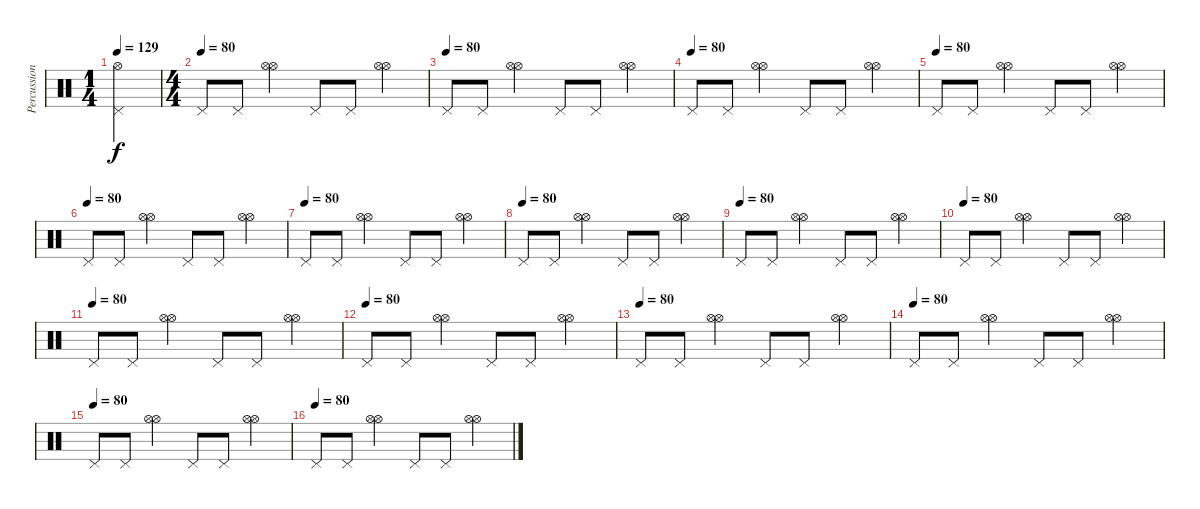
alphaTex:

\track ("Percussions" "Percussion") {instrument percussion}
\staff {score}
\articulation defaults
\ts (1 4)
\tempo 129
\tempo 80
\tempo 129
\clef neutral
\ks c
("Hi-Hat (open)" "Pedal Hi-Hat (hit)").4{dy f} |
\ts (4 4)
\tempo (80)
"Pedal Hi-Hat (hit)".8 "Pedal Hi-Hat (hit)".8 ("Hi-Hat (open)" "Hi-Hat (open)").4 "Pedal Hi-Hat (hit)".8 "Pedal Hi-Hat (hit)".8 ("Hi-Hat (open)" "Hi-Hat (open)").4 |
\tempo (80)
"Pedal Hi-Hat (hit)".8 "Pedal Hi-Hat (hit)".8 ("Hi-Hat (open)" "Hi-Hat (open)").4 "Pedal Hi-Hat (hit)".8 "Pedal Hi-Hat (hit)".8 ("Hi-Hat (open)" "Hi-Hat (open)").4 |
\tempo (80)
"Pedal Hi-Hat (hit)".8 "Pedal Hi-Hat (hit)".8 ("Hi-Hat (open)" "Hi-Hat (open)").4 "Pedal Hi-Hat (hit)".8 "Pedal Hi-Hat (hit)".8 ("Hi-Hat (open)" "Hi-Hat (open)").4 |
\tempo (80)
"Pedal Hi-Hat (hit)".8 "Pedal Hi-Hat (hit)".8 ("Hi-Hat (open)" "Hi-Hat (open)").4 "Pedal Hi-Hat (hit)".8 "Pedal Hi-Hat (hit)".8 ("Hi-Hat (open)" "Hi-Hat (open)").4 |
\tempo (80)
"Pedal Hi-Hat (hit)".8 "Pedal Hi-Hat (hit)".8 ("Hi-Hat (open)" "Hi-Hat (open)").4 "Pedal Hi-Hat (hit)".8 "Pedal Hi-Hat (hit)".8 ("Hi-Hat (open)" "Hi-Hat (open)").4 |
\tempo (80)
"Pedal Hi-Hat (hit)".8 "Pedal Hi-Hat (hit)".8 ("Hi-Hat (open)" "Hi-Hat (open)").4 "Pedal Hi-Hat (hit)".8 "Pedal Hi-Hat (hit)".8 ("Hi-Hat (open)" "Hi-Hat (open)").4 |
\tempo (80)
"Pedal Hi-Hat (hit)".8 "Pedal Hi-Hat (hit)".8 ("Hi-Hat (open)" "Hi-Hat (open)").4 "Pedal Hi-Hat (hit)".8 "Pedal Hi-Hat (hit)".8 ("Hi-Hat (open)" "Hi-Hat (open)").4 |
\tempo (80)
"Pedal Hi-Hat (hit)".8 "Pedal Hi-Hat (hit)".8 ("Hi-Hat (open)" "Hi-Hat (open)").4 "Pedal Hi-Hat (hit)".8 "Pedal Hi-Hat (hit)".8 ("Hi-Hat (open)" "Hi-Hat (open)").4 |
\tempo (80)
"Pedal Hi-Hat (hit)".8 "Pedal Hi-Hat (hit)".8 ("Hi-Hat (open)" "Hi-Hat (open)").4 "Pedal Hi-Hat (hit)".8 "Pedal Hi-Hat (hit)".8 ("Hi-Hat (open)" "Hi-Hat (open)").4 |
\tempo (80)
"Pedal Hi-Hat (hit)".8 "Pedal Hi-Hat (hit)".8 ("Hi-Hat (open)" "Hi-Hat (open)").4 "Pedal Hi-Hat (hit)".8 "Pedal Hi-Hat (hit)".8 ("Hi-Hat (open)" "Hi-Hat (open)").4 |
\tempo (80)
"Pedal Hi-Hat (hit)".8 "Pedal Hi-Hat (hit)".8 ("Hi-Hat (open)" "Hi-Hat (open)").4 "Pedal Hi-Hat (hit)".8 "Pedal Hi-Hat (hit)".8 ("Hi-Hat (open)" "Hi-Hat (open)").4 |
\tempo (80)
"Pedal Hi-Hat (hit)".8 "Pedal Hi-Hat (hit)".8 ("Hi-Hat (open)" "Hi-Hat (open)").4 "Pedal Hi-Hat (hit)".8 "Pedal Hi-Hat (hit)".8 ("Hi-Hat (open)" "Hi-Hat (open)").4 |
\tempo (80)
"Pedal Hi-Hat (hit)".8 "Pedal Hi-Hat (hit)".8 ("Hi-Hat (open)" "Hi-Hat (open)").4 "Pedal Hi-Hat (hit)".8 "Pedal Hi-Hat (hit)".8 ("Hi-Hat (open)" "Hi-Hat (open)").4 |
\tempo (80)
"Pedal Hi-Hat (hit)".8 "Pedal Hi-Hat (hit)".8 ("Hi-Hat (open)" "Hi-Hat (open)").4 "Pedal Hi-Hat (hit)".8 "Pedal Hi-Hat (hit)".8 ("Hi-Hat (open)" "Hi-Hat (open)").4 |
\tempo (80)
"Pedal Hi-Hat (hit)".8 "Pedal Hi-Hat (hit)".8 ("Hi-Hat (open)" "Hi-Hat (open)").4 "Pedal Hi-Hat (hit)".8 "Pedal Hi-Hat (hit)".8 ("Hi-Hat (open)" "Hi-Hat (open)").4
